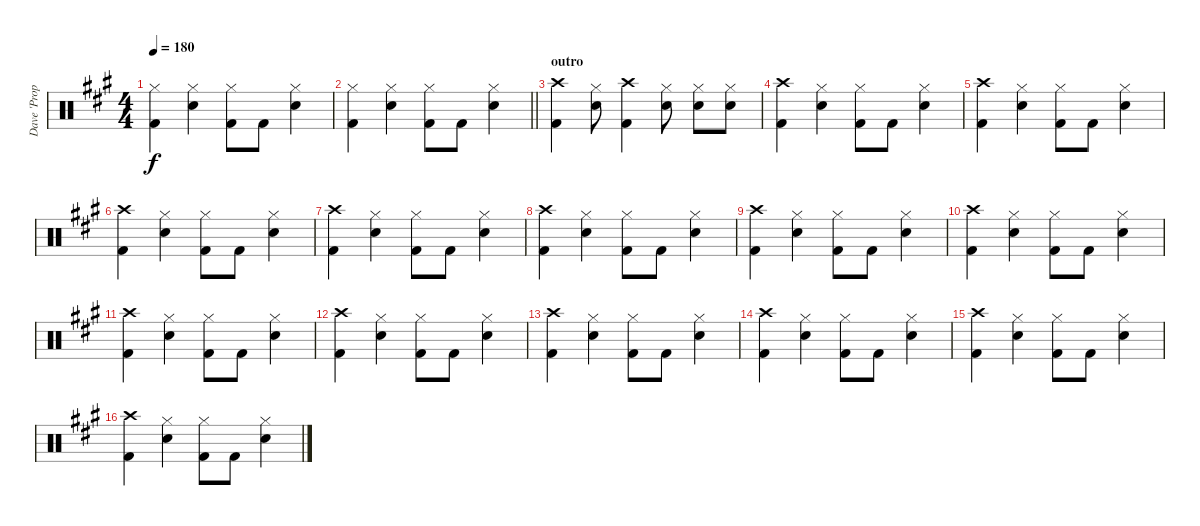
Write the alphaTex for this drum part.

\track ("Dave 'Proper' Caution" "Dave 'Prop") {instrument percussion}
\staff {score}
\articulation defaults
\ts (4 4)
\tempo 180
\clef neutral
\ks a
("Hi-Hat (closed)" "Kick (hit) 2").4{dy f} ("Hi-Hat (closed)" "Electric Snare (hit)").4 ("Hi-Hat (closed)" "Kick (hit) 2").8 "Kick (hit) 2".8 ("Hi-Hat (closed)" "Electric Snare (hit)").4 |
\barLineRight lightlight
("Hi-Hat (closed)" "Kick (hit) 2").4 ("Hi-Hat (closed)" "Electric Snare (hit)").4 ("Hi-Hat (closed)" "Kick (hit) 2").8 "Kick (hit) 2".8 ("Hi-Hat (closed)" "Electric Snare (hit)").4 |
\section ("" "outro")
("Crash high (hit)" "Kick (hit) 2").4 ("Hi-Hat (closed)" "Electric Snare (hit)").8 ("Crash high (hit)" "Kick (hit) 2").4 ("Hi-Hat (closed)" "Electric Snare (hit)").8 ("Hi-Hat (closed)" "Electric Snare (hit)").8 ("Hi-Hat (closed)" "Electric Snare (hit)").8 |
("Crash high (hit)" "Kick (hit) 2").4 ("Hi-Hat (closed)" "Electric Snare (hit)").4 ("Hi-Hat (closed)" "Kick (hit) 2").8 "Kick (hit) 2".8 ("Hi-Hat (closed)" "Electric Snare (hit)").4 |
("Crash high (hit)" "Kick (hit) 2").4 ("Hi-Hat (closed)" "Electric Snare (hit)").4 ("Hi-Hat (closed)" "Kick (hit) 2").8 "Kick (hit) 2".8 ("Hi-Hat (closed)" "Electric Snare (hit)").4 |
("Crash high (hit)" "Kick (hit) 2").4 ("Hi-Hat (closed)" "Electric Snare (hit)").4 ("Hi-Hat (closed)" "Kick (hit) 2").8 "Kick (hit) 2".8 ("Hi-Hat (closed)" "Electric Snare (hit)").4 |
("Crash high (hit)" "Kick (hit) 2").4 ("Hi-Hat (closed)" "Electric Snare (hit)").4 ("Hi-Hat (closed)" "Kick (hit) 2").8 "Kick (hit) 2".8 ("Hi-Hat (closed)" "Electric Snare (hit)").4 |
("Crash high (hit)" "Kick (hit) 2").4 ("Hi-Hat (closed)" "Electric Snare (hit)").4 ("Hi-Hat (closed)" "Kick (hit) 2").8 "Kick (hit) 2".8 ("Hi-Hat (closed)" "Electric Snare (hit)").4 |
("Crash high (hit)" "Kick (hit) 2").4 ("Hi-Hat (closed)" "Electric Snare (hit)").4 ("Hi-Hat (closed)" "Kick (hit) 2").8 "Kick (hit) 2".8 ("Hi-Hat (closed)" "Electric Snare (hit)").4 |
("Crash high (hit)" "Kick (hit) 2").4 ("Hi-Hat (closed)" "Electric Snare (hit)").4 ("Hi-Hat (closed)" "Kick (hit) 2").8 "Kick (hit) 2".8 ("Hi-Hat (closed)" "Electric Snare (hit)").4 |
("Crash high (hit)" "Kick (hit) 2").4 ("Hi-Hat (closed)" "Electric Snare (hit)").4 ("Hi-Hat (closed)" "Kick (hit) 2").8 "Kick (hit) 2".8 ("Hi-Hat (closed)" "Electric Snare (hit)").4 |
("Crash high (hit)" "Kick (hit) 2").4 ("Hi-Hat (closed)" "Electric Snare (hit)").4 ("Hi-Hat (closed)" "Kick (hit) 2").8 "Kick (hit) 2".8 ("Hi-Hat (closed)" "Electric Snare (hit)").4 |
("Crash high (hit)" "Kick (hit) 2").4 ("Hi-Hat (closed)" "Electric Snare (hit)").4 ("Hi-Hat (closed)" "Kick (hit) 2").8 "Kick (hit) 2".8 ("Hi-Hat (closed)" "Electric Snare (hit)").4 |
("Crash high (hit)" "Kick (hit) 2").4 ("Hi-Hat (closed)" "Electric Snare (hit)").4 ("Hi-Hat (closed)" "Kick (hit) 2").8 "Kick (hit) 2".8 ("Hi-Hat (closed)" "Electric Snare (hit)").4 |
("Crash high (hit)" "Kick (hit) 2").4 ("Hi-Hat (closed)" "Electric Snare (hit)").4 ("Hi-Hat (closed)" "Kick (hit) 2").8 "Kick (hit) 2".8 ("Hi-Hat (closed)" "Electric Snare (hit)").4 |
("Crash high (hit)" "Kick (hit) 2").4 ("Hi-Hat (closed)" "Electric Snare (hit)").4 ("Hi-Hat (closed)" "Kick (hit) 2").8 "Kick (hit) 2".8 ("Hi-Hat (closed)" "Electric Snare (hit)").4
